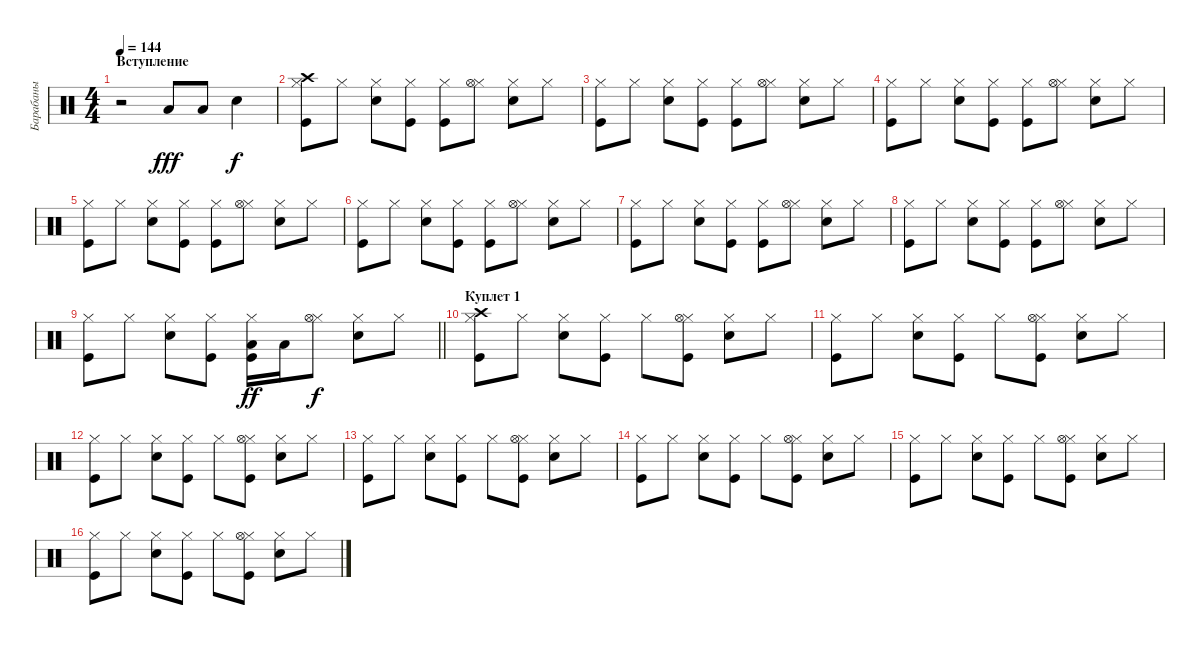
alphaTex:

\track ("Барабаны" "Барабаны") {instrument percussion}
\staff {score}
\articulation defaults
\ts (4 4)
\section ("" "Вступление")
\tempo 144
\clef neutral
\ks c
r.2{dy fff} "Low Tom (hit)".8 "Low Tom (hit)".8 "Snare (hit) 2".4{dy f} |
("Kick (hit)" "Hi-Hat (closed)" "Crash high (hit)").8 "Hi-Hat (closed)".8 ("Snare (hit) 2" "Hi-Hat (closed)").8 ("Kick (hit)" "Hi-Hat (closed)").8 ("Kick (hit)" "Hi-Hat (closed)").8 ("Hi-Hat (closed)" "Hi-Hat (open)").8 ("Snare (hit) 2" "Hi-Hat (closed)").8 "Hi-Hat (closed)".8 |
("Kick (hit)" "Hi-Hat (closed)").8 "Hi-Hat (closed)".8 ("Snare (hit) 2" "Hi-Hat (closed)").8 ("Kick (hit)" "Hi-Hat (closed)").8 ("Kick (hit)" "Hi-Hat (closed)").8 ("Hi-Hat (closed)" "Hi-Hat (open)").8 ("Snare (hit) 2" "Hi-Hat (closed)").8 "Hi-Hat (closed)".8 |
("Kick (hit)" "Hi-Hat (closed)").8 "Hi-Hat (closed)".8 ("Snare (hit) 2" "Hi-Hat (closed)").8 ("Kick (hit)" "Hi-Hat (closed)").8 ("Kick (hit)" "Hi-Hat (closed)").8 ("Hi-Hat (closed)" "Hi-Hat (open)").8 ("Snare (hit) 2" "Hi-Hat (closed)").8 "Hi-Hat (closed)".8 |
("Kick (hit)" "Hi-Hat (closed)").8 "Hi-Hat (closed)".8 ("Snare (hit) 2" "Hi-Hat (closed)").8 ("Kick (hit)" "Hi-Hat (closed)").8 ("Kick (hit)" "Hi-Hat (closed)").8 ("Hi-Hat (closed)" "Hi-Hat (open)").8 ("Snare (hit) 2" "Hi-Hat (closed)").8 "Hi-Hat (closed)".8 |
("Kick (hit)" "Hi-Hat (closed)").8 "Hi-Hat (closed)".8 ("Snare (hit) 2" "Hi-Hat (closed)").8 ("Kick (hit)" "Hi-Hat (closed)").8 ("Kick (hit)" "Hi-Hat (closed)").8 ("Hi-Hat (closed)" "Hi-Hat (open)").8 ("Snare (hit) 2" "Hi-Hat (closed)").8 "Hi-Hat (closed)".8 |
("Kick (hit)" "Hi-Hat (closed)").8 "Hi-Hat (closed)".8 ("Snare (hit) 2" "Hi-Hat (closed)").8 ("Kick (hit)" "Hi-Hat (closed)").8 ("Kick (hit)" "Hi-Hat (closed)").8 ("Hi-Hat (closed)" "Hi-Hat (open)").8 ("Snare (hit) 2" "Hi-Hat (closed)").8 "Hi-Hat (closed)".8 |
("Kick (hit)" "Hi-Hat (closed)").8 "Hi-Hat (closed)".8 ("Snare (hit) 2" "Hi-Hat (closed)").8 ("Kick (hit)" "Hi-Hat (closed)").8 ("Kick (hit)" "Hi-Hat (closed)").8 ("Hi-Hat (closed)" "Hi-Hat (open)").8 ("Snare (hit) 2" "Hi-Hat (closed)").8 "Hi-Hat (closed)".8 |
\barLineRight lightlight
("Kick (hit)" "Hi-Hat (closed)").8 "Hi-Hat (closed)".8 ("Snare (hit) 2" "Hi-Hat (closed)").8 ("Kick (hit)" "Hi-Hat (closed)").8 ("Kick (hit)" "Hi-Hat (closed)" "Low Tom (hit)").16{dy ff} "Low Tom (hit)".16 ("Hi-Hat (closed)" "Hi-Hat (open)").8{dy f} ("Snare (hit) 2" "Hi-Hat (closed)").8 "Hi-Hat (closed)".8 |
\section ("" "Куплет 1")
("Kick (hit)" "Hi-Hat (closed)" "Crash high (hit)").8 "Hi-Hat (closed)".8 ("Snare (hit) 2" "Hi-Hat (closed)").8 ("Kick (hit)" "Hi-Hat (closed)").8 "Hi-Hat (closed)".8 ("Kick (hit)" "Hi-Hat (closed)" "Hi-Hat (open)").8 ("Snare (hit) 2" "Hi-Hat (closed)").8 "Hi-Hat (closed)".8 |
("Kick (hit)" "Hi-Hat (closed)").8 "Hi-Hat (closed)".8 ("Snare (hit) 2" "Hi-Hat (closed)").8 ("Kick (hit)" "Hi-Hat (closed)").8 "Hi-Hat (closed)".8 ("Kick (hit)" "Hi-Hat (closed)" "Hi-Hat (open)").8 ("Snare (hit) 2" "Hi-Hat (closed)").8 "Hi-Hat (closed)".8 |
("Kick (hit)" "Hi-Hat (closed)").8 "Hi-Hat (closed)".8 ("Snare (hit) 2" "Hi-Hat (closed)").8 ("Kick (hit)" "Hi-Hat (closed)").8 "Hi-Hat (closed)".8 ("Kick (hit)" "Hi-Hat (closed)" "Hi-Hat (open)").8 ("Snare (hit) 2" "Hi-Hat (closed)").8 "Hi-Hat (closed)".8 |
("Kick (hit)" "Hi-Hat (closed)").8 "Hi-Hat (closed)".8 ("Snare (hit) 2" "Hi-Hat (closed)").8 ("Kick (hit)" "Hi-Hat (closed)").8 "Hi-Hat (closed)".8 ("Kick (hit)" "Hi-Hat (closed)" "Hi-Hat (open)").8 ("Snare (hit) 2" "Hi-Hat (closed)").8 "Hi-Hat (closed)".8 |
("Kick (hit)" "Hi-Hat (closed)").8 "Hi-Hat (closed)".8 ("Snare (hit) 2" "Hi-Hat (closed)").8 ("Kick (hit)" "Hi-Hat (closed)").8 "Hi-Hat (closed)".8 ("Kick (hit)" "Hi-Hat (closed)" "Hi-Hat (open)").8 ("Snare (hit) 2" "Hi-Hat (closed)").8 "Hi-Hat (closed)".8 |
("Kick (hit)" "Hi-Hat (closed)").8 "Hi-Hat (closed)".8 ("Snare (hit) 2" "Hi-Hat (closed)").8 ("Kick (hit)" "Hi-Hat (closed)").8 "Hi-Hat (closed)".8 ("Kick (hit)" "Hi-Hat (closed)" "Hi-Hat (open)").8 ("Snare (hit) 2" "Hi-Hat (closed)").8 "Hi-Hat (closed)".8 |
("Kick (hit)" "Hi-Hat (closed)").8 "Hi-Hat (closed)".8 ("Snare (hit) 2" "Hi-Hat (closed)").8 ("Kick (hit)" "Hi-Hat (closed)").8 "Hi-Hat (closed)".8 ("Kick (hit)" "Hi-Hat (closed)" "Hi-Hat (open)").8 ("Snare (hit) 2" "Hi-Hat (closed)").8 "Hi-Hat (closed)".8
